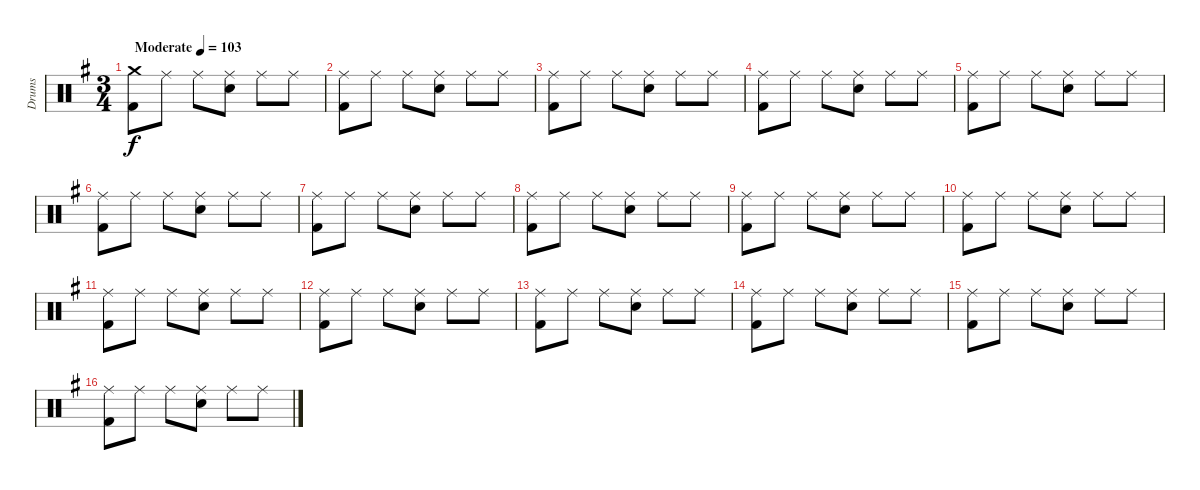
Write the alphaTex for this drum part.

\track ("Drums" "Drums") {instrument percussion}
\staff {score}
\articulation defaults
\ts (3 4)
\tempo (103 "Moderate")
\clef neutral
\ks eminor
("Crash medium (hit)" "Kick (hit) 2").8{dy f} "Ride (middle)".8 "Ride (middle)".8 ("Ride (middle)" "Electric Snare (hit)").8 "Ride (middle)".8 "Ride (middle)".8 |
("Ride (middle)" "Kick (hit) 2").8 "Ride (middle)".8 "Ride (middle)".8 ("Ride (middle)" "Electric Snare (hit)").8 "Ride (middle)".8 "Ride (middle)".8 |
("Ride (middle)" "Kick (hit) 2").8 "Ride (middle)".8 "Ride (middle)".8 ("Ride (middle)" "Electric Snare (hit)").8 "Ride (middle)".8 "Ride (middle)".8 |
("Ride (middle)" "Kick (hit) 2").8 "Ride (middle)".8 "Ride (middle)".8 ("Ride (middle)" "Electric Snare (hit)").8 "Ride (middle)".8 "Ride (middle)".8 |
("Ride (middle)" "Kick (hit) 2").8 "Ride (middle)".8 "Ride (middle)".8 ("Ride (middle)" "Electric Snare (hit)").8 "Ride (middle)".8 "Ride (middle)".8 |
("Ride (middle)" "Kick (hit) 2").8 "Ride (middle)".8 "Ride (middle)".8 ("Ride (middle)" "Electric Snare (hit)").8 "Ride (middle)".8 "Ride (middle)".8 |
("Ride (middle)" "Kick (hit) 2").8 "Ride (middle)".8 "Ride (middle)".8 ("Ride (middle)" "Electric Snare (hit)").8 "Ride (middle)".8 "Ride (middle)".8 |
("Ride (middle)" "Kick (hit) 2").8 "Ride (middle)".8 "Ride (middle)".8 ("Ride (middle)" "Electric Snare (hit)").8 "Ride (middle)".8 "Ride (middle)".8 |
("Ride (middle)" "Kick (hit) 2").8 "Ride (middle)".8 "Ride (middle)".8 ("Ride (middle)" "Electric Snare (hit)").8 "Ride (middle)".8 "Ride (middle)".8 |
("Ride (middle)" "Kick (hit) 2").8 "Ride (middle)".8 "Ride (middle)".8 ("Ride (middle)" "Electric Snare (hit)").8 "Ride (middle)".8 "Ride (middle)".8 |
("Ride (middle)" "Kick (hit) 2").8 "Ride (middle)".8 "Ride (middle)".8 ("Ride (middle)" "Electric Snare (hit)").8 "Ride (middle)".8 "Ride (middle)".8 |
("Ride (middle)" "Kick (hit) 2").8 "Ride (middle)".8 "Ride (middle)".8 ("Ride (middle)" "Electric Snare (hit)").8 "Ride (middle)".8 "Ride (middle)".8 |
("Ride (middle)" "Kick (hit) 2").8 "Ride (middle)".8 "Ride (middle)".8 ("Ride (middle)" "Electric Snare (hit)").8 "Ride (middle)".8 "Ride (middle)".8 |
("Ride (middle)" "Kick (hit) 2").8 "Ride (middle)".8 "Ride (middle)".8 ("Ride (middle)" "Electric Snare (hit)").8 "Ride (middle)".8 "Ride (middle)".8 |
("Ride (middle)" "Kick (hit) 2").8 "Ride (middle)".8 "Ride (middle)".8 ("Ride (middle)" "Electric Snare (hit)").8 "Ride (middle)".8 "Ride (middle)".8 |
("Ride (middle)" "Kick (hit) 2").8 "Ride (middle)".8 "Ride (middle)".8 ("Ride (middle)" "Electric Snare (hit)").8 "Ride (middle)".8 "Ride (middle)".8
